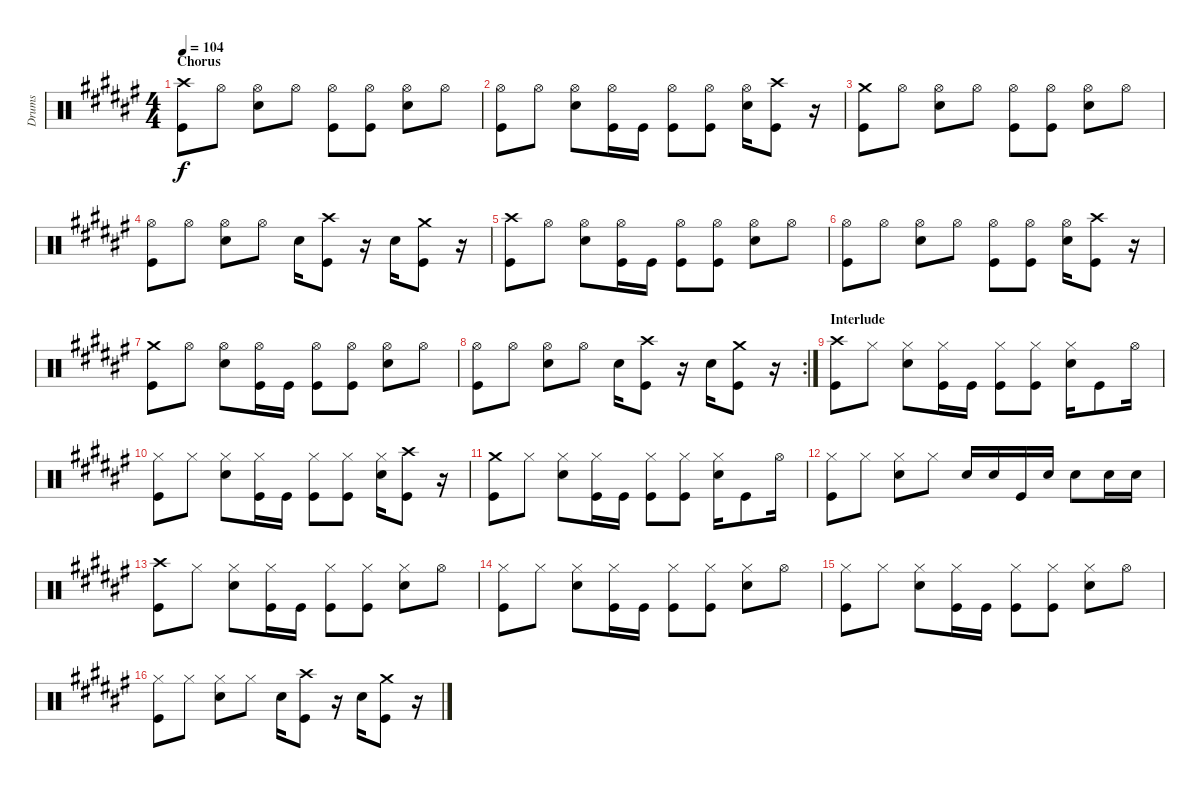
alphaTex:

\track ("Drums" "Drums") {instrument percussion}
\staff {score}
\articulation defaults
\ts (4 4)
\section ("" "Chorus")
\tempo 104
\clef neutral
\ks f#
("Crash high (hit)" "Kick (hit)").8{dy f} "Hi-Hat (open)".8 ("Hi-Hat (open)" "Snare (hit) 2").8 "Hi-Hat (open)".8 ("Hi-Hat (open)" "Kick (hit)").8 ("Hi-Hat (open)" "Kick (hit)").8 ("Hi-Hat (open)" "Snare (hit) 2").8 "Hi-Hat (open)".8 |
("Hi-Hat (open)" "Kick (hit)").8 "Hi-Hat (open)".8 ("Hi-Hat (open)" "Snare (hit) 2").8 ("Hi-Hat (open)" "Kick (hit)").16 "Kick (hit)".16 ("Hi-Hat (open)" "Kick (hit)").8 ("Hi-Hat (open)" "Kick (hit)").8 ("Hi-Hat (open)" "Snare (hit) 2").16 ("Crash high (hit)" "Kick (hit)").8 r.16 |
("Crash medium (hit)" "Kick (hit)").8 "Hi-Hat (open)".8 ("Hi-Hat (open)" "Snare (hit) 2").8 "Hi-Hat (open)".8 ("Hi-Hat (open)" "Kick (hit)").8 ("Hi-Hat (open)" "Kick (hit)").8 ("Hi-Hat (open)" "Snare (hit) 2").8 "Hi-Hat (open)".8 |
("Hi-Hat (open)" "Kick (hit)").8 "Hi-Hat (open)".8 ("Hi-Hat (open)" "Snare (hit) 2").8 "Hi-Hat (open)".8 "Snare (hit) 2".16 ("Crash high (hit)" "Kick (hit)").8 r.16 "Snare (hit) 2".16 ("Crash medium (hit)" "Kick (hit)").8 r.16 |
("Crash high (hit)" "Kick (hit)").8 "Hi-Hat (open)".8 ("Hi-Hat (open)" "Snare (hit) 2").8 ("Hi-Hat (open)" "Kick (hit)").16 "Kick (hit)".16 ("Hi-Hat (open)" "Kick (hit)").8 ("Hi-Hat (open)" "Kick (hit)").8 ("Hi-Hat (open)" "Snare (hit) 2").8 "Hi-Hat (open)".8 |
("Hi-Hat (open)" "Kick (hit)").8 "Hi-Hat (open)".8 ("Hi-Hat (open)" "Snare (hit) 2").8 "Hi-Hat (open)".8 ("Hi-Hat (open)" "Kick (hit)").8 ("Hi-Hat (open)" "Kick (hit)").8 ("Hi-Hat (open)" "Snare (hit) 2").16 ("Crash high (hit)" "Kick (hit)").8 r.16 |
("Crash medium (hit)" "Kick (hit)").8 "Hi-Hat (open)".8 ("Hi-Hat (open)" "Snare (hit) 2").8 ("Hi-Hat (open)" "Kick (hit)").16 "Kick (hit)".16 ("Hi-Hat (open)" "Kick (hit)").8 ("Hi-Hat (open)" "Kick (hit)").8 ("Hi-Hat (open)" "Snare (hit) 2").8 "Hi-Hat (open)".8 |
\rc 2
("Hi-Hat (open)" "Kick (hit)").8 "Hi-Hat (open)".8 ("Hi-Hat (open)" "Snare (hit) 2").8 "Hi-Hat (open)".8 "Snare (hit) 2".16 ("Crash high (hit)" "Kick (hit)").8 r.16 "Snare (hit) 2".16 ("Crash medium (hit)" "Kick (hit)").8 r.16 |
\section ("" "Interlude")
("Crash high (hit)" "Kick (hit)").8 "Hi-Hat (closed)".8 ("Hi-Hat (closed)" "Snare (hit) 2").8 ("Hi-Hat (closed)" "Kick (hit)").16 "Kick (hit)".16 ("Hi-Hat (closed)" "Kick (hit)").8 ("Hi-Hat (closed)" "Kick (hit)").8 ("Hi-Hat (closed)" "Snare (hit) 2").16 "Kick (hit)".8 "Hi-Hat (open)".16 |
("Hi-Hat (closed)" "Kick (hit)").8 "Hi-Hat (closed)".8 ("Hi-Hat (closed)" "Snare (hit) 2").8 ("Hi-Hat (closed)" "Kick (hit)").16 "Kick (hit)".16 ("Hi-Hat (closed)" "Kick (hit)").8 ("Hi-Hat (closed)" "Kick (hit)").8 ("Hi-Hat (closed)" "Snare (hit) 2").16 ("Crash high (hit)" "Kick (hit)").8 r.16 |
("Crash medium (hit)" "Kick (hit)").8 "Hi-Hat (closed)".8 ("Hi-Hat (closed)" "Snare (hit) 2").8 ("Hi-Hat (closed)" "Kick (hit)").16 "Kick (hit)".16 ("Hi-Hat (closed)" "Kick (hit)").8 ("Hi-Hat (closed)" "Kick (hit)").8 ("Hi-Hat (closed)" "Snare (hit) 2").16 "Kick (hit)".8 "Hi-Hat (open)".16 |
("Hi-Hat (closed)" "Kick (hit)").8 "Hi-Hat (closed)".8 ("Hi-Hat (closed)" "Snare (hit) 2").8 "Hi-Hat (closed)".8 "Snare (hit) 2".16 "Snare (hit) 2".16 "Kick (hit)".16 "Snare (hit) 2".16 "Snare (hit) 2".8 "Snare (hit) 2".16 "Snare (hit) 2".16 |
("Crash high (hit)" "Kick (hit)").8 "Hi-Hat (closed)".8 ("Hi-Hat (closed)" "Snare (hit) 2").8 ("Hi-Hat (closed)" "Kick (hit)").16 "Kick (hit)".16 ("Hi-Hat (closed)" "Kick (hit)").8 ("Hi-Hat (closed)" "Kick (hit)").8 ("Hi-Hat (closed)" "Snare (hit) 2").8 "Hi-Hat (open)".8 |
("Hi-Hat (closed)" "Kick (hit)").8 "Hi-Hat (closed)".8 ("Hi-Hat (closed)" "Snare (hit) 2").8 ("Hi-Hat (closed)" "Kick (hit)").16 "Kick (hit)".16 ("Hi-Hat (closed)" "Kick (hit)").8 ("Hi-Hat (closed)" "Kick (hit)").8 ("Hi-Hat (closed)" "Snare (hit) 2").8 "Hi-Hat (open)".8 |
("Hi-Hat (closed)" "Kick (hit)").8 "Hi-Hat (closed)".8 ("Hi-Hat (closed)" "Snare (hit) 2").8 ("Hi-Hat (closed)" "Kick (hit)").16 "Kick (hit)".16 ("Hi-Hat (closed)" "Kick (hit)").8 ("Hi-Hat (closed)" "Kick (hit)").8 ("Hi-Hat (closed)" "Snare (hit) 2").8 "Hi-Hat (open)".8 |
("Hi-Hat (closed)" "Kick (hit)").8 "Hi-Hat (closed)".8 ("Hi-Hat (closed)" "Snare (hit) 2").8 "Hi-Hat (closed)".8 "Snare (hit) 2".16 ("Crash high (hit)" "Kick (hit)").8 r.16 "Snare (hit) 2".16 ("Crash medium (hit)" "Kick (hit)").8 r.16
